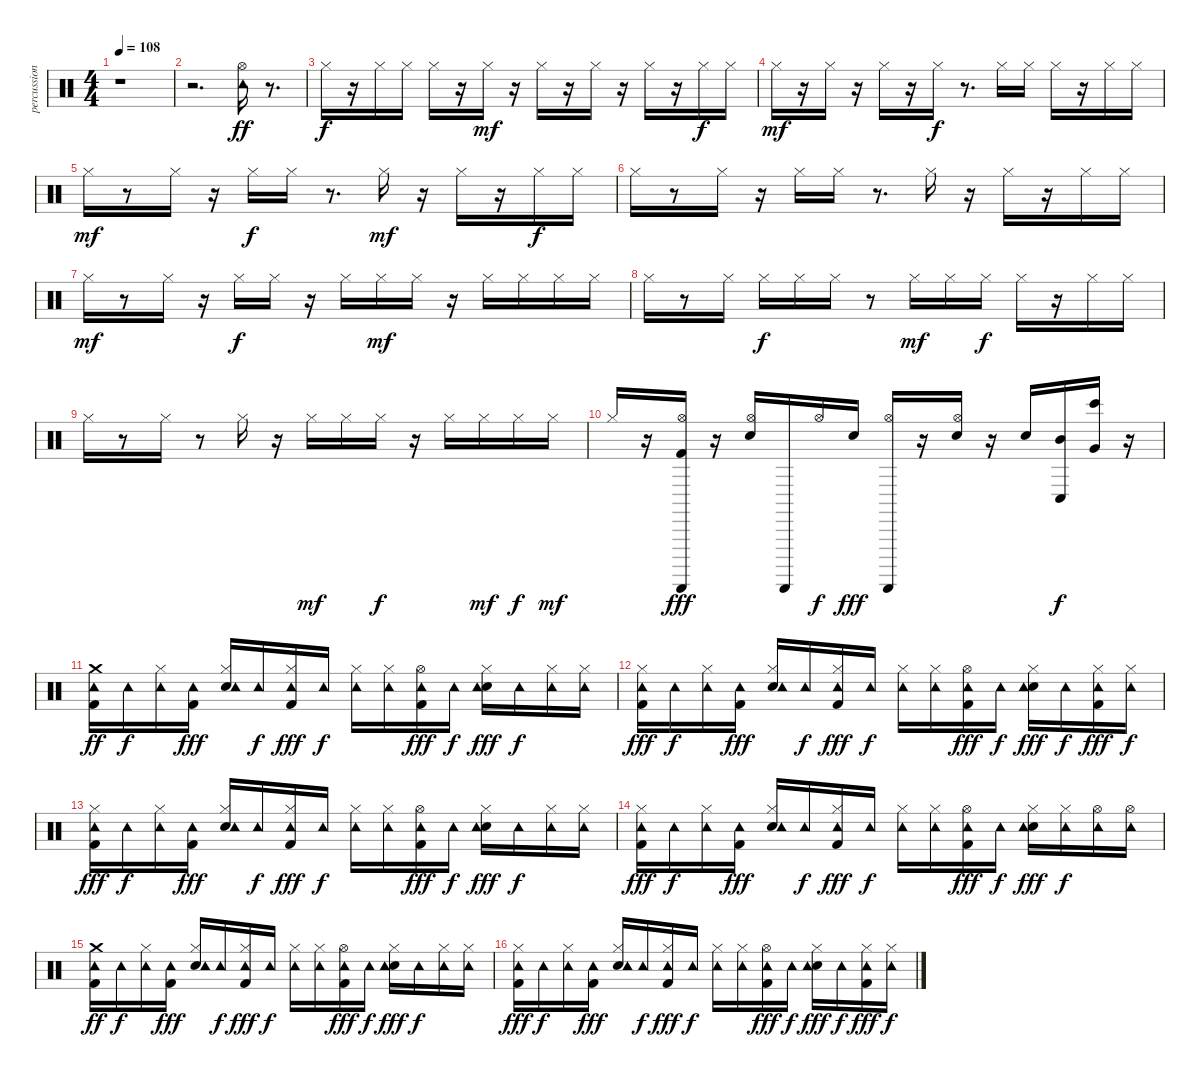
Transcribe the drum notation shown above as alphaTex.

\track ("percussion" "percussion") {instrument percussion}
\staff {score}
\articulation defaults
\ts (4 4)
\tempo 108
\clef neutral
\ks c
r.1{dy fff} |
r.2{d} ("Hi-Hat (open)" "Tambourine (hit)").16{dy ff} r.8{d} |
"Hi-Hat (closed)".16{dy f} r.16 "Hi-Hat (closed)".16 "Hi-Hat (closed)".16 "Hi-Hat (closed)".16 r.16 "Hi-Hat (closed)".16{dy mf} r.16 "Hi-Hat (closed)".16 r.16 "Hi-Hat (closed)".16 r.16 "Hi-Hat (closed)".16 r.16 "Hi-Hat (closed)".16{dy f} "Hi-Hat (closed)".16 |
"Hi-Hat (closed)".16{dy mf} r.16 "Hi-Hat (closed)".16 r.16 "Hi-Hat (closed)".16 r.16 "Hi-Hat (closed)".16{dy f} r.8{d} "Hi-Hat (closed)".16 "Hi-Hat (closed)".16 "Hi-Hat (closed)".16 r.16 "Hi-Hat (closed)".16 "Hi-Hat (closed)".16 |
"Hi-Hat (closed)".16{dy mf} r.8 "Hi-Hat (closed)".16 r.16 "Hi-Hat (closed)".16{dy f} "Hi-Hat (closed)".16 r.8{d} "Hi-Hat (closed)".16{dy mf} r.16 "Hi-Hat (closed)".16 r.16 "Hi-Hat (closed)".16{dy f} "Hi-Hat (closed)".16 |
"Hi-Hat (closed)".16 r.8 "Hi-Hat (closed)".16 r.16 "Hi-Hat (closed)".16 "Hi-Hat (closed)".16 r.8{d} "Hi-Hat (closed)".16 r.16 "Hi-Hat (closed)".16 r.16 "Hi-Hat (closed)".16 "Hi-Hat (closed)".16 |
"Hi-Hat (closed)".16{dy mf} r.8 "Hi-Hat (closed)".16 r.16 "Hi-Hat (closed)".16{dy f} "Hi-Hat (closed)".16 r.16 "Hi-Hat (closed)".16 "Hi-Hat (closed)".16{dy mf} "Hi-Hat (closed)".16 r.16 "Hi-Hat (closed)".16 "Hi-Hat (closed)".16 "Hi-Hat (closed)".16 "Hi-Hat (closed)".16 |
"Hi-Hat (closed)".16 r.8 "Hi-Hat (closed)".16 "Hi-Hat (closed)".16{dy f} "Hi-Hat (closed)".16 "Hi-Hat (closed)".16 r.8 "Hi-Hat (closed)".16{dy mf} "Hi-Hat (closed)".16 "Hi-Hat (closed)".16{dy f} "Hi-Hat (closed)".16 r.16 "Hi-Hat (closed)".16 "Hi-Hat (closed)".16 |
"Hi-Hat (closed)".16 r.8 "Hi-Hat (closed)".16 r.8 "Hi-Hat (closed)".16 r.16 "Hi-Hat (closed)".16{dy mf} "Hi-Hat (closed)".16 "Hi-Hat (closed)".16{dy f} r.16 "Hi-Hat (closed)".16 "Hi-Hat (closed)".16{dy mf} "Hi-Hat (closed)".16{dy f} "Hi-Hat (closed)".16{dy mf} |
"Hi-Hat (closed)".16 r.16 ("Hi-Hat (open)" "Kick (hit) 2" "Guiro (scrap-return)").16{dy fff} r.16 ("Hi-Hat (open)" "Electric Snare (hit)").16 "Guiro (scrap-return)".16 "Hi-Hat (open)".16{dy f} "Electric Snare (hit)".16{dy fff} ("Hi-Hat (open)" "Guiro (scrap-return)").16 r.16 ("Hi-Hat (open)" "Electric Snare (hit)").16 r.16 "Electric Snare (hit)".16 ("Conga low (hit)" "Mid Tom (hit)").16{dy f} ("Bongo High (hit)" "Very Low Tom (hit)").16 r.16 |
("Kick (hit) 2" "Crash medium (hit)" "Tambourine (hit)").16{dy ff} "Tambourine (hit)".16{dy f} ("Hi-Hat (closed)" "Tambourine (hit)").16 ("Kick (hit) 2" "Tambourine (hit)").16{dy fff} ("Hi-Hat (closed)" "Electric Snare (hit)" "Tambourine (hit)").16 "Tambourine (hit)".16{dy f} ("Hi-Hat (closed)" "Kick (hit) 2" "Tambourine (hit)").16{dy fff} "Tambourine (hit)".16{dy f} ("Hi-Hat (closed)" "Tambourine (hit)").16 ("Hi-Hat (closed)" "Tambourine (hit)").16 ("Kick (hit) 2" "Hi-Hat (open)" "Tambourine (hit)").16{dy fff} "Tambourine (hit)".16{dy f} ("Hi-Hat (closed)" "Electric Snare (hit)" "Tambourine (hit)").16{dy fff} "Tambourine (hit)".16{dy f} ("Hi-Hat (closed)" "Tambourine (hit)").16 ("Hi-Hat (closed)" "Tambourine (hit)").16 |
("Hi-Hat (closed)" "Kick (hit) 2" "Tambourine (hit)").16{dy fff} "Tambourine (hit)".16{dy f} ("Hi-Hat (closed)" "Tambourine (hit)").16 ("Kick (hit) 2" "Tambourine (hit)").16{dy fff} ("Hi-Hat (closed)" "Electric Snare (hit)" "Tambourine (hit)").16 "Tambourine (hit)".16{dy f} ("Hi-Hat (closed)" "Kick (hit) 2" "Tambourine (hit)").16{dy fff} "Tambourine (hit)".16{dy f} ("Hi-Hat (closed)" "Tambourine (hit)").16 ("Hi-Hat (closed)" "Tambourine (hit)").16 ("Kick (hit) 2" "Hi-Hat (open)" "Tambourine (hit)").16{dy fff} "Tambourine (hit)".16{dy f} ("Hi-Hat (closed)" "Electric Snare (hit)" "Tambourine (hit)").16{dy fff} "Tambourine (hit)".16{dy f} ("Kick (hit) 2" "Hi-Hat (closed)" "Tambourine (hit)").16{dy fff} ("Hi-Hat (closed)" "Tambourine (hit)").16{dy f} |
("Kick (hit) 2" "Hi-Hat (closed)" "Tambourine (hit)").16{dy fff} "Tambourine (hit)".16{dy f} ("Hi-Hat (closed)" "Tambourine (hit)").16 ("Kick (hit) 2" "Tambourine (hit)").16{dy fff} ("Hi-Hat (closed)" "Electric Snare (hit)" "Tambourine (hit)").16 "Tambourine (hit)".16{dy f} ("Hi-Hat (closed)" "Kick (hit) 2" "Tambourine (hit)").16{dy fff} "Tambourine (hit)".16{dy f} ("Hi-Hat (closed)" "Tambourine (hit)").16 ("Hi-Hat (closed)" "Tambourine (hit)").16 ("Kick (hit) 2" "Hi-Hat (open)" "Tambourine (hit)").16{dy fff} "Tambourine (hit)".16{dy f} ("Hi-Hat (closed)" "Electric Snare (hit)" "Tambourine (hit)").16{dy fff} "Tambourine (hit)".16{dy f} ("Hi-Hat (closed)" "Tambourine (hit)").16 ("Hi-Hat (closed)" "Tambourine (hit)").16 |
("Hi-Hat (closed)" "Kick (hit) 2" "Tambourine (hit)").16{dy fff} "Tambourine (hit)".16{dy f} ("Hi-Hat (closed)" "Tambourine (hit)").16 ("Kick (hit) 2" "Tambourine (hit)").16{dy fff} ("Hi-Hat (closed)" "Electric Snare (hit)" "Tambourine (hit)").16 "Tambourine (hit)".16{dy f} ("Hi-Hat (closed)" "Kick (hit) 2" "Tambourine (hit)").16{dy fff} "Tambourine (hit)".16{dy f} ("Hi-Hat (closed)" "Tambourine (hit)").16 ("Hi-Hat (closed)" "Tambourine (hit)").16 ("Kick (hit) 2" "Hi-Hat (open)" "Tambourine (hit)").16{dy fff} "Tambourine (hit)".16{dy f} ("Hi-Hat (closed)" "Electric Snare (hit)" "Tambourine (hit)").16{dy fff} ("Hi-Hat (closed)" "Tambourine (hit)").16{dy f} ("Hi-Hat (open)" "Tambourine (hit)").16 ("Hi-Hat (open)" "Tambourine (hit)").16 |
("Kick (hit) 2" "Crash medium (hit)" "Tambourine (hit)").16{dy ff} "Tambourine (hit)".16{dy f} ("Hi-Hat (closed)" "Tambourine (hit)").16 ("Kick (hit) 2" "Tambourine (hit)").16{dy fff} ("Hi-Hat (closed)" "Electric Snare (hit)" "Tambourine (hit)").16 "Tambourine (hit)".16{dy f} ("Hi-Hat (closed)" "Kick (hit) 2" "Tambourine (hit)").16{dy fff} "Tambourine (hit)".16{dy f} ("Hi-Hat (closed)" "Tambourine (hit)").16 ("Hi-Hat (closed)" "Tambourine (hit)").16 ("Kick (hit) 2" "Hi-Hat (open)" "Tambourine (hit)").16{dy fff} "Tambourine (hit)".16{dy f} ("Hi-Hat (closed)" "Electric Snare (hit)" "Tambourine (hit)").16{dy fff} "Tambourine (hit)".16{dy f} ("Hi-Hat (closed)" "Tambourine (hit)").16 ("Hi-Hat (closed)" "Tambourine (hit)").16 |
("Hi-Hat (closed)" "Kick (hit) 2" "Tambourine (hit)").16{dy fff} "Tambourine (hit)".16{dy f} ("Hi-Hat (closed)" "Tambourine (hit)").16 ("Kick (hit) 2" "Tambourine (hit)").16{dy fff} ("Hi-Hat (closed)" "Electric Snare (hit)" "Tambourine (hit)").16 "Tambourine (hit)".16{dy f} ("Hi-Hat (closed)" "Kick (hit) 2" "Tambourine (hit)").16{dy fff} "Tambourine (hit)".16{dy f} ("Hi-Hat (closed)" "Tambourine (hit)").16 ("Hi-Hat (closed)" "Tambourine (hit)").16 ("Kick (hit) 2" "Hi-Hat (open)" "Tambourine (hit)").16{dy fff} "Tambourine (hit)".16{dy f} ("Hi-Hat (closed)" "Electric Snare (hit)" "Tambourine (hit)").16{dy fff} "Tambourine (hit)".16{dy f} ("Kick (hit) 2" "Hi-Hat (closed)" "Tambourine (hit)").16{dy fff} ("Hi-Hat (closed)" "Tambourine (hit)").16{dy f}
